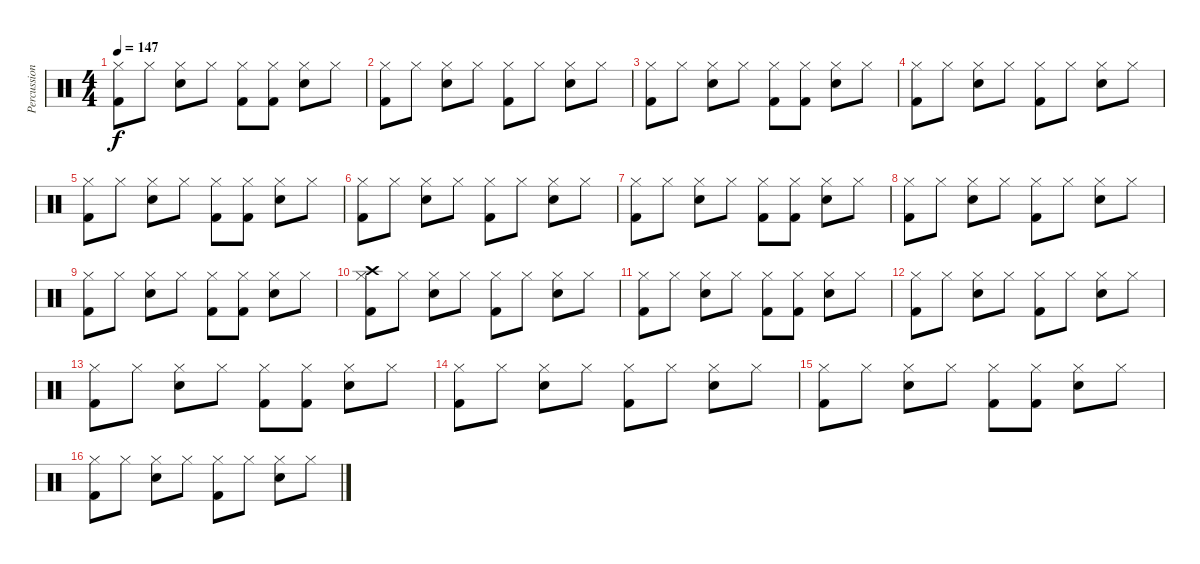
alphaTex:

\track ("Percussions" "Percussion") {instrument percussion}
\staff {score}
\articulation defaults
\ts (4 4)
\tempo 147
\clef neutral
\ks c
("Kick (hit) 2" "Hi-Hat (closed)").8{dy f} "Hi-Hat (closed)".8 ("Electric Snare (hit)" "Hi-Hat (closed)").8 "Hi-Hat (closed)".8 ("Kick (hit) 2" "Hi-Hat (closed)").8 ("Kick (hit) 2" "Hi-Hat (closed)").8 ("Electric Snare (hit)" "Hi-Hat (closed)").8 "Hi-Hat (closed)".8 |
("Kick (hit) 2" "Hi-Hat (closed)").8 "Hi-Hat (closed)".8 ("Electric Snare (hit)" "Hi-Hat (closed)").8 "Hi-Hat (closed)".8 ("Kick (hit) 2" "Hi-Hat (closed)").8 "Hi-Hat (closed)".8 ("Electric Snare (hit)" "Hi-Hat (closed)").8 "Hi-Hat (closed)".8 |
("Kick (hit) 2" "Hi-Hat (closed)").8 "Hi-Hat (closed)".8 ("Electric Snare (hit)" "Hi-Hat (closed)").8 "Hi-Hat (closed)".8 ("Kick (hit) 2" "Hi-Hat (closed)").8 ("Kick (hit) 2" "Hi-Hat (closed)").8 ("Electric Snare (hit)" "Hi-Hat (closed)").8 "Hi-Hat (closed)".8 |
("Kick (hit) 2" "Hi-Hat (closed)").8 "Hi-Hat (closed)".8 ("Electric Snare (hit)" "Hi-Hat (closed)").8 "Hi-Hat (closed)".8 ("Kick (hit) 2" "Hi-Hat (closed)").8 "Hi-Hat (closed)".8 ("Electric Snare (hit)" "Hi-Hat (closed)").8 "Hi-Hat (closed)".8 |
("Kick (hit) 2" "Hi-Hat (closed)").8 "Hi-Hat (closed)".8 ("Electric Snare (hit)" "Hi-Hat (closed)").8 "Hi-Hat (closed)".8 ("Kick (hit) 2" "Hi-Hat (closed)").8 ("Kick (hit) 2" "Hi-Hat (closed)").8 ("Electric Snare (hit)" "Hi-Hat (closed)").8 "Hi-Hat (closed)".8 |
("Kick (hit) 2" "Hi-Hat (closed)").8 "Hi-Hat (closed)".8 ("Electric Snare (hit)" "Hi-Hat (closed)").8 "Hi-Hat (closed)".8 ("Kick (hit) 2" "Hi-Hat (closed)").8 "Hi-Hat (closed)".8 ("Electric Snare (hit)" "Hi-Hat (closed)").8 "Hi-Hat (closed)".8 |
("Kick (hit) 2" "Hi-Hat (closed)").8 "Hi-Hat (closed)".8 ("Electric Snare (hit)" "Hi-Hat (closed)").8 "Hi-Hat (closed)".8 ("Kick (hit) 2" "Hi-Hat (closed)").8 ("Kick (hit) 2" "Hi-Hat (closed)").8 ("Electric Snare (hit)" "Hi-Hat (closed)").8 "Hi-Hat (closed)".8 |
("Kick (hit) 2" "Hi-Hat (closed)").8 "Hi-Hat (closed)".8 ("Electric Snare (hit)" "Hi-Hat (closed)").8 "Hi-Hat (closed)".8 ("Kick (hit) 2" "Hi-Hat (closed)").8 "Hi-Hat (closed)".8 ("Electric Snare (hit)" "Hi-Hat (closed)").8 "Hi-Hat (closed)".8 |
("Kick (hit) 2" "Hi-Hat (closed)").8 "Hi-Hat (closed)".8 ("Electric Snare (hit)" "Hi-Hat (closed)").8 "Hi-Hat (closed)".8 ("Kick (hit) 2" "Hi-Hat (closed)").8 ("Kick (hit) 2" "Hi-Hat (closed)").8 ("Electric Snare (hit)" "Hi-Hat (closed)").8 "Hi-Hat (closed)".8 |
("Crash high (hit)" "Kick (hit) 2" "Hi-Hat (closed)").8 "Hi-Hat (closed)".8 ("Electric Snare (hit)" "Hi-Hat (closed)").8 "Hi-Hat (closed)".8 ("Kick (hit) 2" "Hi-Hat (closed)").8 "Hi-Hat (closed)".8 ("Electric Snare (hit)" "Hi-Hat (closed)").8 "Hi-Hat (closed)".8 |
("Kick (hit) 2" "Hi-Hat (closed)").8 "Hi-Hat (closed)".8 ("Electric Snare (hit)" "Hi-Hat (closed)").8 "Hi-Hat (closed)".8 ("Kick (hit) 2" "Hi-Hat (closed)").8 ("Kick (hit) 2" "Hi-Hat (closed)").8 ("Electric Snare (hit)" "Hi-Hat (closed)").8 "Hi-Hat (closed)".8 |
("Kick (hit) 2" "Hi-Hat (closed)").8 "Hi-Hat (closed)".8 ("Electric Snare (hit)" "Hi-Hat (closed)").8 "Hi-Hat (closed)".8 ("Kick (hit) 2" "Hi-Hat (closed)").8 "Hi-Hat (closed)".8 ("Electric Snare (hit)" "Hi-Hat (closed)").8 "Hi-Hat (closed)".8 |
("Kick (hit) 2" "Hi-Hat (closed)").8 "Hi-Hat (closed)".8 ("Electric Snare (hit)" "Hi-Hat (closed)").8 "Hi-Hat (closed)".8 ("Kick (hit) 2" "Hi-Hat (closed)").8 ("Kick (hit) 2" "Hi-Hat (closed)").8 ("Electric Snare (hit)" "Hi-Hat (closed)").8 "Hi-Hat (closed)".8 |
("Kick (hit) 2" "Hi-Hat (closed)").8 "Hi-Hat (closed)".8 ("Electric Snare (hit)" "Hi-Hat (closed)").8 "Hi-Hat (closed)".8 ("Kick (hit) 2" "Hi-Hat (closed)").8 "Hi-Hat (closed)".8 ("Electric Snare (hit)" "Hi-Hat (closed)").8 "Hi-Hat (closed)".8 |
("Kick (hit) 2" "Hi-Hat (closed)").8 "Hi-Hat (closed)".8 ("Electric Snare (hit)" "Hi-Hat (closed)").8 "Hi-Hat (closed)".8 ("Kick (hit) 2" "Hi-Hat (closed)").8 ("Kick (hit) 2" "Hi-Hat (closed)").8 ("Electric Snare (hit)" "Hi-Hat (closed)").8 "Hi-Hat (closed)".8 |
("Kick (hit) 2" "Hi-Hat (closed)").8 "Hi-Hat (closed)".8 ("Electric Snare (hit)" "Hi-Hat (closed)").8 "Hi-Hat (closed)".8 ("Kick (hit) 2" "Hi-Hat (closed)").8 "Hi-Hat (closed)".8 ("Electric Snare (hit)" "Hi-Hat (closed)").8 "Hi-Hat (closed)".8
